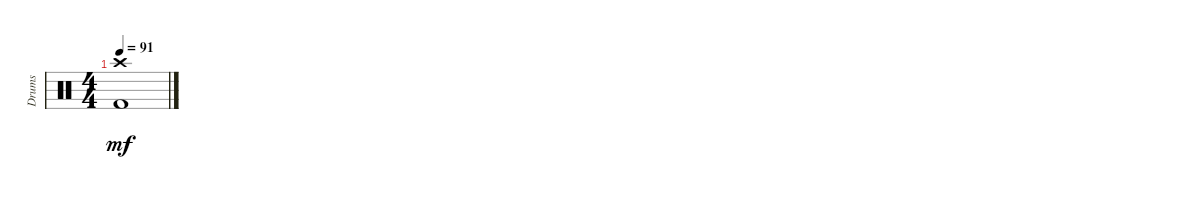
\track ("Drums" "Drums") {instrument percussion}
\staff {score}
\articulation defaults
\ts (4 4)
\tempo 91
\clef neutral
\ks c
("Crash high (hit)" "Kick (hit) 2").1{dy mf}
